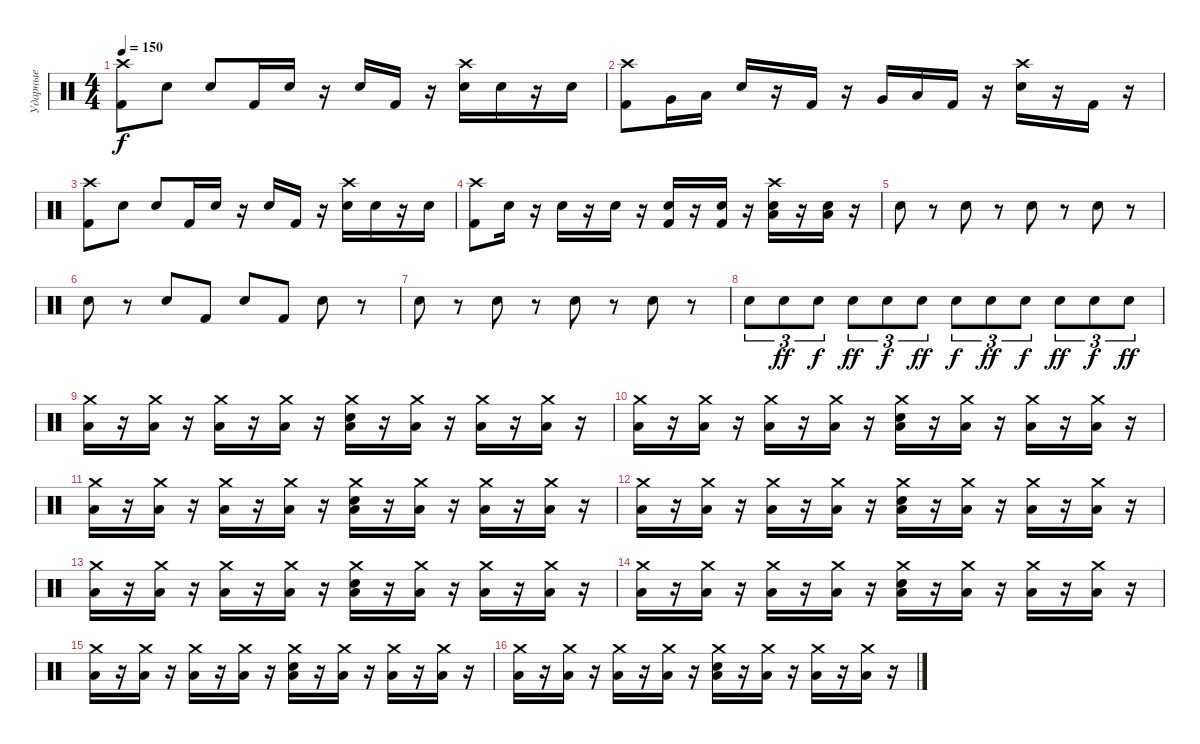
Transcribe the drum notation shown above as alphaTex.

\track ("Ударные" "Ударные") {instrument percussion}
\staff {score}
\articulation defaults
\ts (4 4)
\tempo 150
\clef neutral
\ks c
("Crash high (hit)" "Kick (hit) 2").8{dy f} "Snare (hit) 2".8 "Snare (hit) 2".8 "Kick (hit) 2".16 "Snare (hit) 2".16 r.16 "Snare (hit) 2".16 "Kick (hit) 2".16 r.16 ("Crash high (hit)" "Snare (hit) 2").16 "Snare (hit) 2".16 r.16 "Snare (hit) 2".16 |
("Crash high (hit)" "Kick (hit) 2").8 "Very Low Tom (hit)".16 "Low Floor Tom (hit)".16 "Snare (hit) 2".16 r.16 "Kick (hit) 2".16 r.16 "Very Low Tom (hit)".16 "Low Floor Tom (hit)".16 "Kick (hit) 2".16 r.16 ("Crash high (hit)" "Snare (hit) 2").16 r.16 "Kick (hit) 2".16 r.16 |
("Crash high (hit)" "Kick (hit) 2").8 "Snare (hit) 2".8 "Snare (hit) 2".8 "Kick (hit) 2".16 "Snare (hit) 2".16 r.16 "Snare (hit) 2".16 "Kick (hit) 2".16 r.16 ("Crash high (hit)" "Snare (hit) 2").16 "Snare (hit) 2".16 r.16 "Snare (hit) 2".16 |
("Crash high (hit)" "Kick (hit) 2").8 "Snare (hit) 2".16 r.16 "Snare (hit) 2".16 r.16 "Snare (hit) 2".16 r.16 ("Kick (hit) 2" "Snare (hit) 2").16 r.16 ("Kick (hit) 2" "Snare (hit) 2").16 r.16 ("Crash high (hit)" "Low Floor Tom (hit)" "Snare (hit) 2").16 r.16 ("Low Floor Tom (hit)" "Snare (hit) 2").16 r.16 |
"Snare (hit) 2".8 r.8 "Snare (hit) 2".8 r.8 "Snare (hit) 2".8 r.8 "Snare (hit) 2".8 r.8 |
"Snare (hit) 2".8 r.8 "Snare (hit) 2".8 "Kick (hit) 2".8 "Snare (hit) 2".8 "Kick (hit) 2".8 "Snare (hit) 2".8 r.8 |
"Snare (hit) 2".8 r.8 "Snare (hit) 2".8 r.8 "Snare (hit) 2".8 r.8 "Snare (hit) 2".8 r.8 |
"Snare (hit) 2".8{tu (3 2)} "Snare (hit) 2".8{tu (3 2) dy ff} "Snare (hit) 2".8{tu (3 2) dy f} "Snare (hit) 2".8{tu (3 2) dy ff} "Snare (hit) 2".8{tu (3 2) dy f} "Snare (hit) 2".8{tu (3 2) dy ff} "Snare (hit) 2".8{tu (3 2) dy f} "Snare (hit) 2".8{tu (3 2) dy ff} "Snare (hit) 2".8{tu (3 2) dy f} "Snare (hit) 2".8{tu (3 2) dy ff} "Snare (hit) 2".8{tu (3 2) dy f} "Snare (hit) 2".8{tu (3 2) dy ff} |
("Crash medium (hit)" "Low Floor Tom (hit)").16 r.16 ("Crash medium (hit)" "Low Floor Tom (hit)").16 r.16 ("Crash medium (hit)" "Low Floor Tom (hit)").16 r.16 ("Crash medium (hit)" "Low Floor Tom (hit)").16 r.16 ("Crash medium (hit)" "Snare (hit) 2" "Low Floor Tom (hit)").16 r.16 ("Crash medium (hit)" "Low Floor Tom (hit)").16 r.16 ("Crash medium (hit)" "Low Floor Tom (hit)").16 r.16 ("Crash medium (hit)" "Low Floor Tom (hit)").16 r.16 |
("Crash medium (hit)" "Low Floor Tom (hit)").16 r.16 ("Crash medium (hit)" "Low Floor Tom (hit)").16 r.16 ("Crash medium (hit)" "Low Floor Tom (hit)").16 r.16 ("Crash medium (hit)" "Low Floor Tom (hit)").16 r.16 ("Crash medium (hit)" "Snare (hit) 2" "Low Floor Tom (hit)").16 r.16 ("Crash medium (hit)" "Low Floor Tom (hit)").16 r.16 ("Crash medium (hit)" "Low Floor Tom (hit)").16 r.16 ("Crash medium (hit)" "Low Floor Tom (hit)").16 r.16 |
("Crash medium (hit)" "Low Floor Tom (hit)").16 r.16 ("Crash medium (hit)" "Low Floor Tom (hit)").16 r.16 ("Crash medium (hit)" "Low Floor Tom (hit)").16 r.16 ("Crash medium (hit)" "Low Floor Tom (hit)").16 r.16 ("Crash medium (hit)" "Snare (hit) 2" "Low Floor Tom (hit)").16 r.16 ("Crash medium (hit)" "Low Floor Tom (hit)").16 r.16 ("Crash medium (hit)" "Low Floor Tom (hit)").16 r.16 ("Crash medium (hit)" "Low Floor Tom (hit)").16 r.16 |
("Crash medium (hit)" "Low Floor Tom (hit)").16 r.16 ("Crash medium (hit)" "Low Floor Tom (hit)").16 r.16 ("Crash medium (hit)" "Low Floor Tom (hit)").16 r.16 ("Crash medium (hit)" "Low Floor Tom (hit)").16 r.16 ("Crash medium (hit)" "Snare (hit) 2" "Low Floor Tom (hit)").16 r.16 ("Crash medium (hit)" "Low Floor Tom (hit)").16 r.16 ("Crash medium (hit)" "Low Floor Tom (hit)").16 r.16 ("Crash medium (hit)" "Low Floor Tom (hit)").16 r.16 |
("Crash medium (hit)" "Low Floor Tom (hit)").16 r.16 ("Crash medium (hit)" "Low Floor Tom (hit)").16 r.16 ("Crash medium (hit)" "Low Floor Tom (hit)").16 r.16 ("Crash medium (hit)" "Low Floor Tom (hit)").16 r.16 ("Crash medium (hit)" "Snare (hit) 2" "Low Floor Tom (hit)").16 r.16 ("Crash medium (hit)" "Low Floor Tom (hit)").16 r.16 ("Crash medium (hit)" "Low Floor Tom (hit)").16 r.16 ("Crash medium (hit)" "Low Floor Tom (hit)").16 r.16 |
("Crash medium (hit)" "Low Floor Tom (hit)").16 r.16 ("Crash medium (hit)" "Low Floor Tom (hit)").16 r.16 ("Crash medium (hit)" "Low Floor Tom (hit)").16 r.16 ("Crash medium (hit)" "Low Floor Tom (hit)").16 r.16 ("Crash medium (hit)" "Snare (hit) 2" "Low Floor Tom (hit)").16 r.16 ("Crash medium (hit)" "Low Floor Tom (hit)").16 r.16 ("Crash medium (hit)" "Low Floor Tom (hit)").16 r.16 ("Crash medium (hit)" "Low Floor Tom (hit)").16 r.16 |
("Crash medium (hit)" "Low Floor Tom (hit)").16 r.16 ("Crash medium (hit)" "Low Floor Tom (hit)").16 r.16 ("Crash medium (hit)" "Low Floor Tom (hit)").16 r.16 ("Crash medium (hit)" "Low Floor Tom (hit)").16 r.16 ("Crash medium (hit)" "Snare (hit) 2" "Low Floor Tom (hit)").16 r.16 ("Crash medium (hit)" "Low Floor Tom (hit)").16 r.16 ("Crash medium (hit)" "Low Floor Tom (hit)").16 r.16 ("Crash medium (hit)" "Low Floor Tom (hit)").16 r.16 |
("Crash medium (hit)" "Low Floor Tom (hit)").16 r.16 ("Crash medium (hit)" "Low Floor Tom (hit)").16 r.16 ("Crash medium (hit)" "Low Floor Tom (hit)").16 r.16 ("Crash medium (hit)" "Low Floor Tom (hit)").16 r.16 ("Crash medium (hit)" "Snare (hit) 2" "Low Floor Tom (hit)").16 r.16 ("Crash medium (hit)" "Low Floor Tom (hit)").16 r.16 ("Crash medium (hit)" "Low Floor Tom (hit)").16 r.16 ("Crash medium (hit)" "Low Floor Tom (hit)").16 r.16
